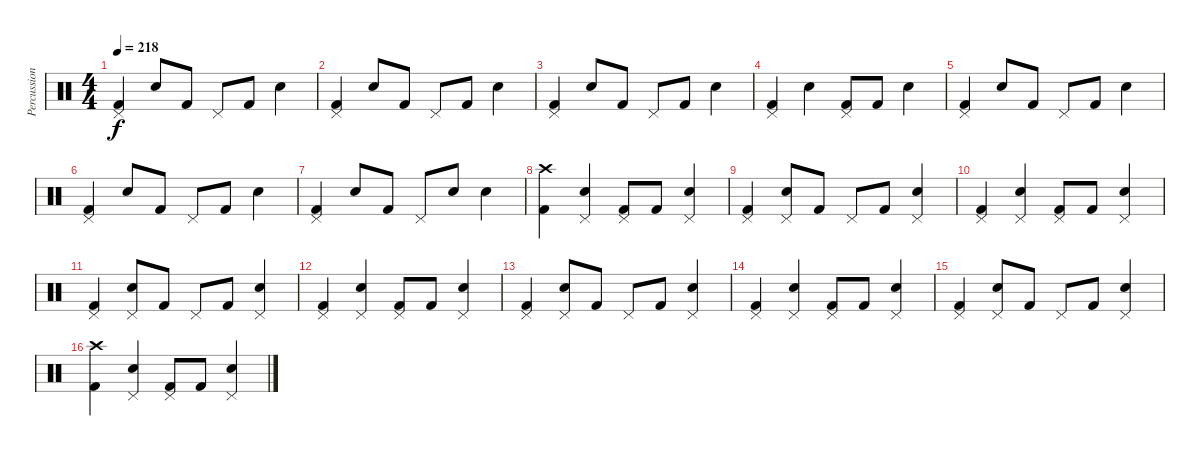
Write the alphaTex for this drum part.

\track ("Percussion" "Percussion") {instrument percussion}
\staff {score}
\articulation defaults
\ts (4 4)
\tempo 218
\clef neutral
\ks c
("Kick (hit) 2" "Pedal Hi-Hat (hit)").4{dy f} "Snare (hit) 2".8 "Kick (hit) 2".8 "Pedal Hi-Hat (hit)".8 "Kick (hit) 2".8 "Snare (hit) 2".4 |
("Kick (hit) 2" "Pedal Hi-Hat (hit)").4 "Snare (hit) 2".8 "Kick (hit) 2".8 "Pedal Hi-Hat (hit)".8 "Kick (hit) 2".8 "Snare (hit) 2".4 |
("Kick (hit) 2" "Pedal Hi-Hat (hit)").4 "Snare (hit) 2".8 "Kick (hit) 2".8 "Pedal Hi-Hat (hit)".8 "Kick (hit) 2".8 "Snare (hit) 2".4 |
("Kick (hit) 2" "Pedal Hi-Hat (hit)").4 "Snare (hit) 2".4 ("Kick (hit) 2" "Pedal Hi-Hat (hit)").8 "Kick (hit) 2".8 "Snare (hit) 2".4 |
("Kick (hit) 2" "Pedal Hi-Hat (hit)").4 "Snare (hit) 2".8 "Kick (hit) 2".8 "Pedal Hi-Hat (hit)".8 "Kick (hit) 2".8 "Snare (hit) 2".4 |
("Kick (hit) 2" "Pedal Hi-Hat (hit)").4 "Snare (hit) 2".8 "Kick (hit) 2".8 "Pedal Hi-Hat (hit)".8 "Kick (hit) 2".8 "Snare (hit) 2".4 |
("Kick (hit) 2" "Pedal Hi-Hat (hit)").4 "Snare (hit) 2".8 "Kick (hit) 2".8 "Pedal Hi-Hat (hit)".8 "Snare (hit) 2".8 "Snare (hit) 2".4 |
("Kick (hit) 2" "Crash high (hit)").4 ("Snare (hit) 2" "Pedal Hi-Hat (hit)").4 ("Kick (hit) 2" "Pedal Hi-Hat (hit)").8 "Kick (hit) 2".8 ("Snare (hit) 2" "Pedal Hi-Hat (hit)").4 |
("Kick (hit) 2" "Pedal Hi-Hat (hit)").4 ("Snare (hit) 2" "Pedal Hi-Hat (hit)").8 "Kick (hit) 2".8 "Pedal Hi-Hat (hit)".8 "Kick (hit) 2".8 ("Snare (hit) 2" "Pedal Hi-Hat (hit)").4 |
("Kick (hit) 2" "Pedal Hi-Hat (hit)").4 ("Snare (hit) 2" "Pedal Hi-Hat (hit)").4 ("Kick (hit) 2" "Pedal Hi-Hat (hit)").8 "Kick (hit) 2".8 ("Snare (hit) 2" "Pedal Hi-Hat (hit)").4 |
("Kick (hit) 2" "Pedal Hi-Hat (hit)").4 ("Snare (hit) 2" "Pedal Hi-Hat (hit)").8 "Kick (hit) 2".8 "Pedal Hi-Hat (hit)".8 "Kick (hit) 2".8 ("Snare (hit) 2" "Pedal Hi-Hat (hit)").4 |
("Kick (hit) 2" "Pedal Hi-Hat (hit)").4 ("Snare (hit) 2" "Pedal Hi-Hat (hit)").4 ("Kick (hit) 2" "Pedal Hi-Hat (hit)").8 "Kick (hit) 2".8 ("Snare (hit) 2" "Pedal Hi-Hat (hit)").4 |
("Kick (hit) 2" "Pedal Hi-Hat (hit)").4 ("Snare (hit) 2" "Pedal Hi-Hat (hit)").8 "Kick (hit) 2".8 "Pedal Hi-Hat (hit)".8 "Kick (hit) 2".8 ("Snare (hit) 2" "Pedal Hi-Hat (hit)").4 |
("Kick (hit) 2" "Pedal Hi-Hat (hit)").4 ("Snare (hit) 2" "Pedal Hi-Hat (hit)").4 ("Kick (hit) 2" "Pedal Hi-Hat (hit)").8 "Kick (hit) 2".8 ("Snare (hit) 2" "Pedal Hi-Hat (hit)").4 |
("Kick (hit) 2" "Pedal Hi-Hat (hit)").4 ("Snare (hit) 2" "Pedal Hi-Hat (hit)").8 "Kick (hit) 2".8 "Pedal Hi-Hat (hit)".8 "Kick (hit) 2".8 ("Snare (hit) 2" "Pedal Hi-Hat (hit)").4 |
("Kick (hit) 2" "Crash high (hit)").4 ("Snare (hit) 2" "Pedal Hi-Hat (hit)").4 ("Kick (hit) 2" "Pedal Hi-Hat (hit)").8 "Kick (hit) 2".8 ("Snare (hit) 2" "Pedal Hi-Hat (hit)").4
